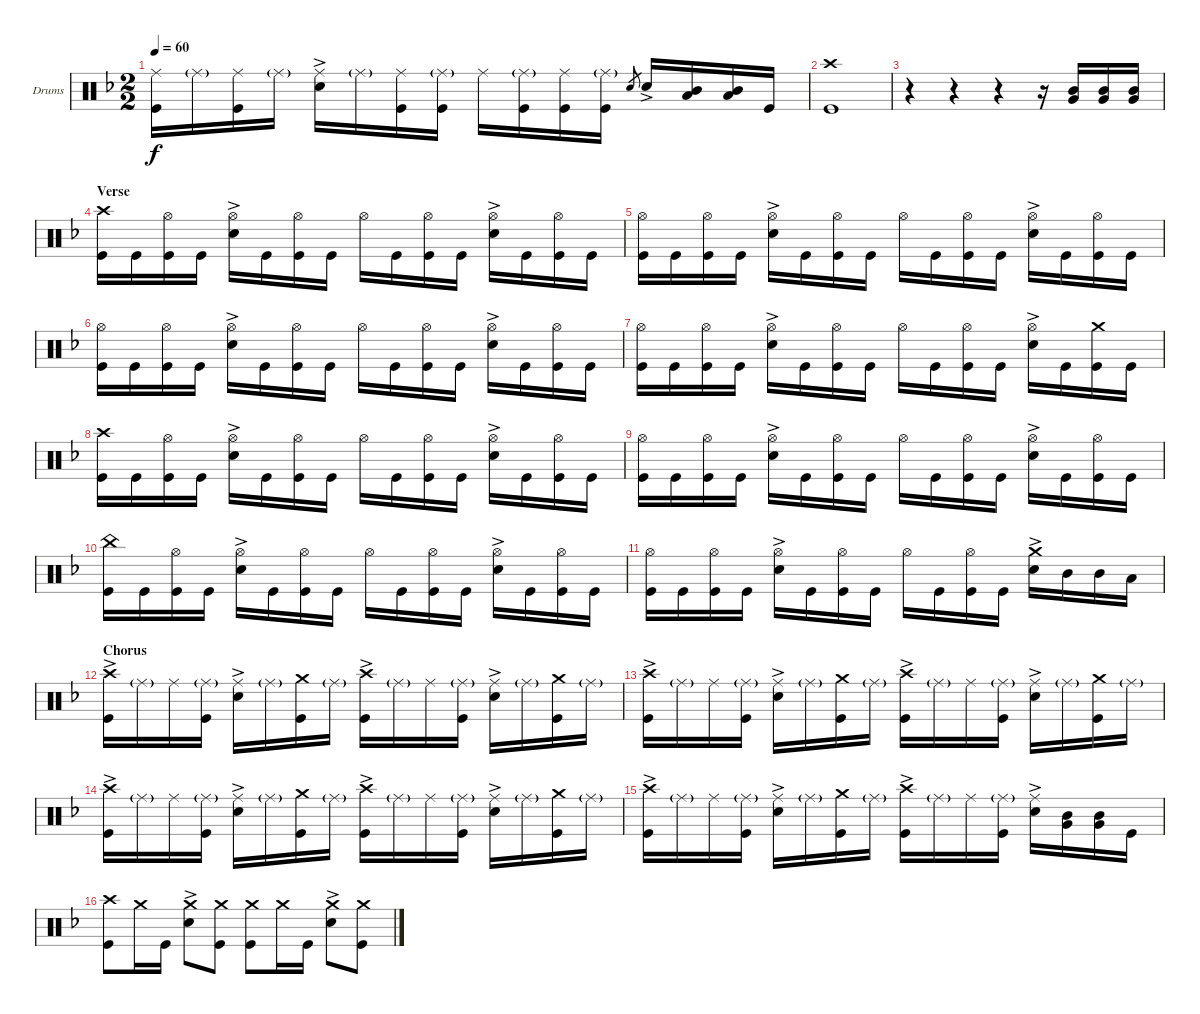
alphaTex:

\bracketExtendMode groupsimilarinstruments
\firstSystemTrackNameOrientation horizontal
\otherSystemsTrackNameOrientation horizontal
\track ("Drumkit" "Drums") {instrument percussion}
\staff {score}
\articulation defaults
\ts (2 2)
\tempo 60
\clef neutral
\ks dminor
("Ride (middle)" "Kick (hit)").16{dy f} "Ride (middle)"{g}.16 ("Ride (middle)" "Kick (hit)").16 "Ride (middle)"{g}.16 ("Ride (middle)" "Snare (hit) 2"{ac}).16 "Ride (middle)"{g}.16 ("Ride (middle)" "Kick (hit)").16 ("Ride (middle)"{g} "Kick (hit)").16 "Ride (middle)".16 ("Ride (middle)"{g} "Kick (hit)").16 ("Ride (middle)" "Kick (hit)").16 ("Ride (middle)"{g} "Kick (hit)").16 "Snare (hit) 2".8{gr} "Snare (hit) 2"{ac}.16 ("Mid Tom (hit)" "Low Tom (hit)").16 ("Low Tom (hit)" "Mid Tom (hit)").16 "Kick (hit)".16 |
("Kick (hit)" "Crash high (hit)").1 |
r.4 r.4 r.4 r.16 ("Very Low Tom (hit)" "Mid Tom (hit)").16 ("Mid Tom (hit)" "Very Low Tom (hit)").16 ("Mid Tom (hit)" "Very Low Tom (hit)").16 |
\section ("" "Verse")
("Kick (hit)" "Crash high (hit)").16 "Kick (hit)".16 ("Kick (hit)" "Hi-Hat (open)").16 "Kick (hit)".16 ("Snare (hit) 2"{ac} "Hi-Hat (open)").16 "Kick (hit)".16 ("Kick (hit)" "Hi-Hat (open)").16 "Kick (hit)".16 "Hi-Hat (open)".16 "Kick (hit)".16 ("Kick (hit)" "Hi-Hat (open)").16 "Kick (hit)".16 ("Snare (hit) 2"{ac} "Hi-Hat (open)").16 "Kick (hit)".16 ("Kick (hit)" "Hi-Hat (open)").16 "Kick (hit)".16 |
("Kick (hit)" "Hi-Hat (open)").16 "Kick (hit)".16 ("Kick (hit)" "Hi-Hat (open)").16 "Kick (hit)".16 ("Snare (hit) 2"{ac} "Hi-Hat (open)").16 "Kick (hit)".16 ("Kick (hit)" "Hi-Hat (open)").16 "Kick (hit)".16 "Hi-Hat (open)".16 "Kick (hit)".16 ("Kick (hit)" "Hi-Hat (open)").16 "Kick (hit)".16 ("Snare (hit) 2"{ac} "Hi-Hat (open)").16 "Kick (hit)".16 ("Kick (hit)" "Hi-Hat (open)").16 "Kick (hit)".16 |
("Kick (hit)" "Hi-Hat (open)").16 "Kick (hit)".16 ("Kick (hit)" "Hi-Hat (open)").16 "Kick (hit)".16 ("Snare (hit) 2"{ac} "Hi-Hat (open)").16 "Kick (hit)".16 ("Kick (hit)" "Hi-Hat (open)").16 "Kick (hit)".16 "Hi-Hat (open)".16 "Kick (hit)".16 ("Kick (hit)" "Hi-Hat (open)").16 "Kick (hit)".16 ("Snare (hit) 2"{ac} "Hi-Hat (open)").16 "Kick (hit)".16 ("Kick (hit)" "Hi-Hat (open)").16 "Kick (hit)".16 |
("Kick (hit)" "Hi-Hat (open)").16 "Kick (hit)".16 ("Kick (hit)" "Hi-Hat (open)").16 "Kick (hit)".16 ("Snare (hit) 2"{ac} "Hi-Hat (open)").16 "Kick (hit)".16 ("Kick (hit)" "Hi-Hat (open)").16 "Kick (hit)".16 "Hi-Hat (open)".16 "Kick (hit)".16 ("Kick (hit)" "Hi-Hat (open)").16 "Kick (hit)".16 ("Snare (hit) 2"{ac} "Hi-Hat (open)").16 "Kick (hit)".16 ("Kick (hit)" "Crash medium (hit)").16 "Kick (hit)".16 |
("Kick (hit)" "Crash high (hit)").16 "Kick (hit)".16 ("Kick (hit)" "Hi-Hat (open)").16 "Kick (hit)".16 ("Snare (hit) 2"{ac} "Hi-Hat (open)").16 "Kick (hit)".16 ("Kick (hit)" "Hi-Hat (open)").16 "Kick (hit)".16 "Hi-Hat (open)".16 "Kick (hit)".16 ("Kick (hit)" "Hi-Hat (open)").16 "Kick (hit)".16 ("Snare (hit) 2"{ac} "Hi-Hat (open)").16 "Kick (hit)".16 ("Kick (hit)" "Hi-Hat (open)").16 "Kick (hit)".16 |
("Kick (hit)" "Hi-Hat (open)").16 "Kick (hit)".16 ("Kick (hit)" "Hi-Hat (open)").16 "Kick (hit)".16 ("Snare (hit) 2"{ac} "Hi-Hat (open)").16 "Kick (hit)".16 ("Kick (hit)" "Hi-Hat (open)").16 "Kick (hit)".16 "Hi-Hat (open)".16 "Kick (hit)".16 ("Kick (hit)" "Hi-Hat (open)").16 "Kick (hit)".16 ("Snare (hit) 2"{ac} "Hi-Hat (open)").16 "Kick (hit)".16 ("Kick (hit)" "Hi-Hat (open)").16 "Kick (hit)".16 |
("Kick (hit)" "China (hit)").16 "Kick (hit)".16 ("Kick (hit)" "Hi-Hat (open)").16 "Kick (hit)".16 ("Snare (hit) 2"{ac} "Hi-Hat (open)").16 "Kick (hit)".16 ("Kick (hit)" "Hi-Hat (open)").16 "Kick (hit)".16 "Hi-Hat (open)".16 "Kick (hit)".16 ("Kick (hit)" "Hi-Hat (open)").16 "Kick (hit)".16 ("Snare (hit) 2"{ac} "Hi-Hat (open)").16 "Kick (hit)".16 ("Kick (hit)" "Hi-Hat (open)").16 "Kick (hit)".16 |
("Kick (hit)" "Hi-Hat (open)").16 "Kick (hit)".16 ("Kick (hit)" "Hi-Hat (open)").16 "Kick (hit)".16 ("Snare (hit) 2"{ac} "Hi-Hat (open)").16 "Kick (hit)".16 ("Kick (hit)" "Hi-Hat (open)").16 "Kick (hit)".16 "Hi-Hat (open)".16 "Kick (hit)".16 ("Kick (hit)" "Hi-Hat (open)").16 "Kick (hit)".16 ("Snare (hit) 2"{ac} "Crash medium (hit)").16 "Mid Tom (hit)".16 "Mid Tom (hit)".16 "Low Tom (hit)".16 |
\section ("" "Chorus")
("Crash high (hit)"{ac} "Kick (hit)").16 "Ride (middle)"{g}.16 "Ride (middle)".16 ("Ride (middle)"{g} "Kick (hit)").16 ("Ride (middle)" "Snare (hit) 2"{ac}).16 "Ride (middle)"{g}.16 ("Crash medium (hit)" "Kick (hit)").16 "Ride (middle)"{g}.16 ("Crash high (hit)"{ac} "Kick (hit)").16 "Ride (middle)"{g}.16 "Ride (middle)".16 ("Ride (middle)"{g} "Kick (hit)").16 ("Ride (middle)" "Snare (hit) 2"{ac}).16 "Ride (middle)"{g}.16 ("Crash medium (hit)" "Kick (hit)").16 "Ride (middle)"{g}.16 |
("Crash high (hit)"{ac} "Kick (hit)").16 "Ride (middle)"{g}.16 "Ride (middle)".16 ("Ride (middle)"{g} "Kick (hit)").16 ("Ride (middle)" "Snare (hit) 2"{ac}).16 "Ride (middle)"{g}.16 ("Crash medium (hit)" "Kick (hit)").16 "Ride (middle)"{g}.16 ("Crash high (hit)"{ac} "Kick (hit)").16 "Ride (middle)"{g}.16 "Ride (middle)".16 ("Ride (middle)"{g} "Kick (hit)").16 ("Ride (middle)" "Snare (hit) 2"{ac}).16 "Ride (middle)"{g}.16 ("Crash medium (hit)" "Kick (hit)").16 "Ride (middle)"{g}.16 |
("Crash high (hit)"{ac} "Kick (hit)").16 "Ride (middle)"{g}.16 "Ride (middle)".16 ("Ride (middle)"{g} "Kick (hit)").16 ("Ride (middle)" "Snare (hit) 2"{ac}).16 "Ride (middle)"{g}.16 ("Crash medium (hit)" "Kick (hit)").16 "Ride (middle)"{g}.16 ("Crash high (hit)"{ac} "Kick (hit)").16 "Ride (middle)"{g}.16 "Ride (middle)".16 ("Ride (middle)"{g} "Kick (hit)").16 ("Ride (middle)" "Snare (hit) 2"{ac}).16 "Ride (middle)"{g}.16 ("Crash medium (hit)" "Kick (hit)").16 "Ride (middle)"{g}.16 |
("Crash high (hit)"{ac} "Kick (hit)").16 "Ride (middle)"{g}.16 "Ride (middle)".16 ("Ride (middle)"{g} "Kick (hit)").16 ("Ride (middle)" "Snare (hit) 2"{ac}).16 "Ride (middle)"{g}.16 ("Crash medium (hit)" "Kick (hit)").16 "Ride (middle)"{g}.16 ("Crash high (hit)"{ac} "Kick (hit)").16 "Ride (middle)"{g}.16 "Ride (middle)".16 ("Ride (middle)"{g} "Kick (hit)").16 ("Ride (middle)" "Snare (hit) 2"{ac}).16 ("Mid Tom (hit)" "Very Low Tom (hit)").16 ("Mid Tom (hit)" "Very Low Tom (hit)").16 "Kick (hit)".16 |
("Kick (hit)" "Crash high (hit)").8 "Crash medium (hit)".16 "Kick (hit)".16 ("Snare (hit) 2"{ac} "Crash medium (hit)").8 ("Crash medium (hit)" "Kick (hit)").8 ("Kick (hit)" "Crash medium (hit)").8 "Crash medium (hit)".16 "Kick (hit)".16 ("Snare (hit) 2"{ac} "Crash medium (hit)").8 ("Crash medium (hit)" "Kick (hit)").8
